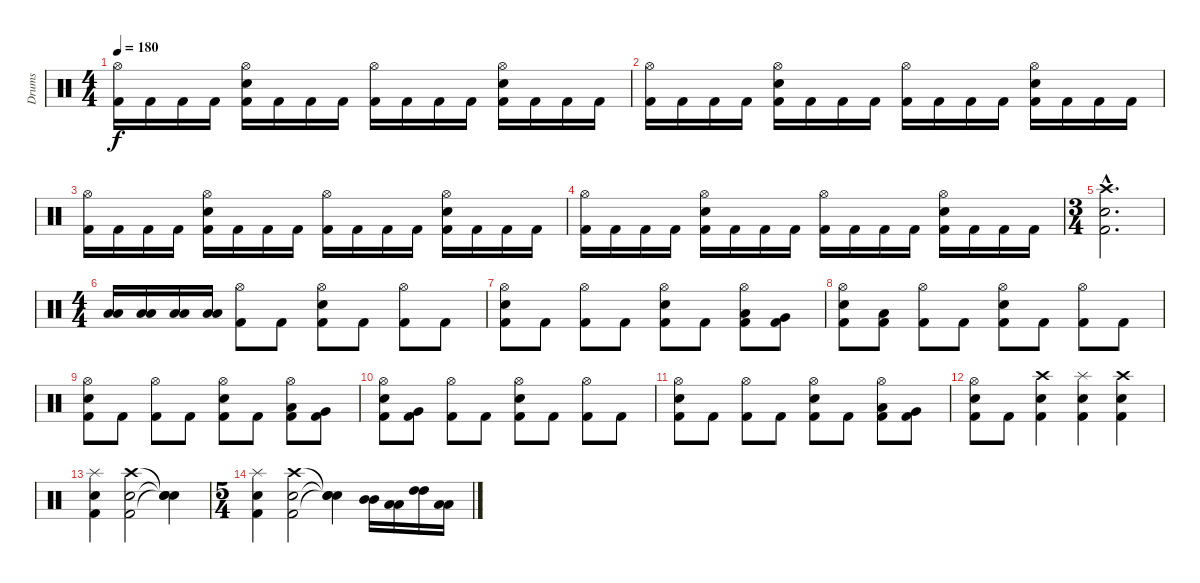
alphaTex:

\track ("Drums" "Drums") {instrument percussion}
\staff {score}
\articulation defaults
\ts (4 4)
\tempo 180
\clef neutral
\ks c
("Hi-Hat (open)" "Kick (hit) 2").16{dy f} "Kick (hit) 2".16 "Kick (hit) 2".16 "Kick (hit) 2".16 ("Hi-Hat (open)" "Snare (hit) 2" "Kick (hit) 2").16 "Kick (hit) 2".16 "Kick (hit) 2".16 "Kick (hit) 2".16 ("Hi-Hat (open)" "Kick (hit) 2").16 "Kick (hit) 2".16 "Kick (hit) 2".16 "Kick (hit) 2".16 ("Hi-Hat (open)" "Snare (hit) 2" "Kick (hit) 2").16 "Kick (hit) 2".16 "Kick (hit) 2".16 "Kick (hit) 2".16 |
("Hi-Hat (open)" "Kick (hit) 2").16 "Kick (hit) 2".16 "Kick (hit) 2".16 "Kick (hit) 2".16 ("Hi-Hat (open)" "Snare (hit) 2" "Kick (hit) 2").16 "Kick (hit) 2".16 "Kick (hit) 2".16 "Kick (hit) 2".16 ("Hi-Hat (open)" "Kick (hit) 2").16 "Kick (hit) 2".16 "Kick (hit) 2".16 "Kick (hit) 2".16 ("Hi-Hat (open)" "Snare (hit) 2" "Kick (hit) 2").16 "Kick (hit) 2".16 "Kick (hit) 2".16 "Kick (hit) 2".16 |
("Hi-Hat (open)" "Kick (hit) 2").16 "Kick (hit) 2".16 "Kick (hit) 2".16 "Kick (hit) 2".16 ("Hi-Hat (open)" "Snare (hit) 2" "Kick (hit) 2").16 "Kick (hit) 2".16 "Kick (hit) 2".16 "Kick (hit) 2".16 ("Hi-Hat (open)" "Kick (hit) 2").16 "Kick (hit) 2".16 "Kick (hit) 2".16 "Kick (hit) 2".16 ("Hi-Hat (open)" "Snare (hit) 2" "Kick (hit) 2").16 "Kick (hit) 2".16 "Kick (hit) 2".16 "Kick (hit) 2".16 |
("Hi-Hat (open)" "Kick (hit) 2").16 "Kick (hit) 2".16 "Kick (hit) 2".16 "Kick (hit) 2".16 ("Hi-Hat (open)" "Snare (hit) 2" "Kick (hit) 2").16 "Kick (hit) 2".16 "Kick (hit) 2".16 "Kick (hit) 2".16 ("Hi-Hat (open)" "Kick (hit) 2").16 "Kick (hit) 2".16 "Kick (hit) 2".16 "Kick (hit) 2".16 ("Hi-Hat (open)" "Snare (hit) 2" "Kick (hit) 2").16 "Kick (hit) 2".16 "Kick (hit) 2".16 "Kick (hit) 2".16 |
\ts (3 4)
("Crash high (hit)"{hac} "Snare (hit) 2"{hac} "Kick (hit) 2"{hac}).2{d} |
\ts (4 4)
("Low Tom (hit)" "Low Tom (hit)").16 ("Low Floor Tom (hit)" "Low Floor Tom (hit)").16 ("Low Tom (hit)" "Low Tom (hit)").16 ("Low Floor Tom (hit)" "Low Floor Tom (hit)").16 ("Hi-Hat (open)" "Kick (hit) 2").8 "Kick (hit) 2".8 ("Hi-Hat (open)" "Snare (hit) 2" "Kick (hit) 2").8 "Kick (hit) 2".8 ("Hi-Hat (open)" "Kick (hit) 2").8 "Kick (hit) 2".8 |
("Hi-Hat (open)" "Snare (hit) 2" "Kick (hit) 2").8 "Kick (hit) 2".8 ("Hi-Hat (open)" "Kick (hit) 2").8 "Kick (hit) 2".8 ("Hi-Hat (open)" "Snare (hit) 2" "Kick (hit) 2").8 "Kick (hit) 2".8 ("Hi-Hat (open)" "Low Tom (hit)" "Kick (hit) 2").8 ("Very Low Tom (hit)" "Kick (hit) 2").8 |
("Hi-Hat (open)" "Snare (hit) 2" "Kick (hit) 2").8 ("Low Tom (hit)" "Kick (hit) 2").8 ("Hi-Hat (open)" "Kick (hit) 2").8 "Kick (hit) 2".8 ("Hi-Hat (open)" "Snare (hit) 2" "Kick (hit) 2").8 "Kick (hit) 2".8 ("Hi-Hat (open)" "Kick (hit) 2").8 "Kick (hit) 2".8 |
("Hi-Hat (open)" "Snare (hit) 2" "Kick (hit) 2").8 "Kick (hit) 2".8 ("Hi-Hat (open)" "Kick (hit) 2").8 "Kick (hit) 2".8 ("Hi-Hat (open)" "Snare (hit) 2" "Kick (hit) 2").8 "Kick (hit) 2".8 ("Hi-Hat (open)" "Low Tom (hit)" "Kick (hit) 2").8 ("Very Low Tom (hit)" "Kick (hit) 2").8 |
("Hi-Hat (open)" "Snare (hit) 2" "Kick (hit) 2").8 ("Very Low Tom (hit)" "Kick (hit) 2").8 ("Hi-Hat (open)" "Kick (hit) 2").8 "Kick (hit) 2".8 ("Hi-Hat (open)" "Snare (hit) 2" "Kick (hit) 2").8 "Kick (hit) 2".8 ("Hi-Hat (open)" "Kick (hit) 2").8 "Kick (hit) 2".8 |
("Hi-Hat (open)" "Snare (hit) 2" "Kick (hit) 2").8 "Kick (hit) 2".8 ("Hi-Hat (open)" "Kick (hit) 2").8 "Kick (hit) 2".8 ("Hi-Hat (open)" "Snare (hit) 2" "Kick (hit) 2").8 "Kick (hit) 2".8 ("Hi-Hat (open)" "Low Tom (hit)" "Kick (hit) 2").8 ("Very Low Tom (hit)" "Kick (hit) 2").8 |
("Hi-Hat (open)" "Snare (hit) 2" "Kick (hit) 2").8 "Kick (hit) 2".8 ("Snare (hit) 2" "Kick (hit) 2" "Crash high (hit)").4 ("Snare (hit) 2" "Kick (hit) 2" "Splash (hit)").4 ("Snare (hit) 2" "Kick (hit) 2" "Crash high (hit)").4 |
("Snare (hit) 2" "Kick (hit) 2" "Splash (hit)").4 ("Snare (hit) 2" "Kick (hit) 2" "Crash high (hit)").2 ("Snare (hit)"{t} "Snare (hit)"{t} "Snare (hit)"{t}).4 |
\ts (5 4)
("Snare (hit) 2" "Kick (hit) 2" "Splash (hit)").4 ("Snare (hit) 2" "Kick (hit) 2" "Crash high (hit)").2 ("Snare (hit)"{t} "Snare (hit)"{t} "Snare (hit)"{t}).4 ("Mid Tom (hit)" "Mid Tom (hit)").16 ("Low Tom (hit)" "Low Tom (hit)").16 ("High Tom (hit)" "High Tom (hit)").16 ("Low Tom (hit)" "Low Tom (hit)").16
